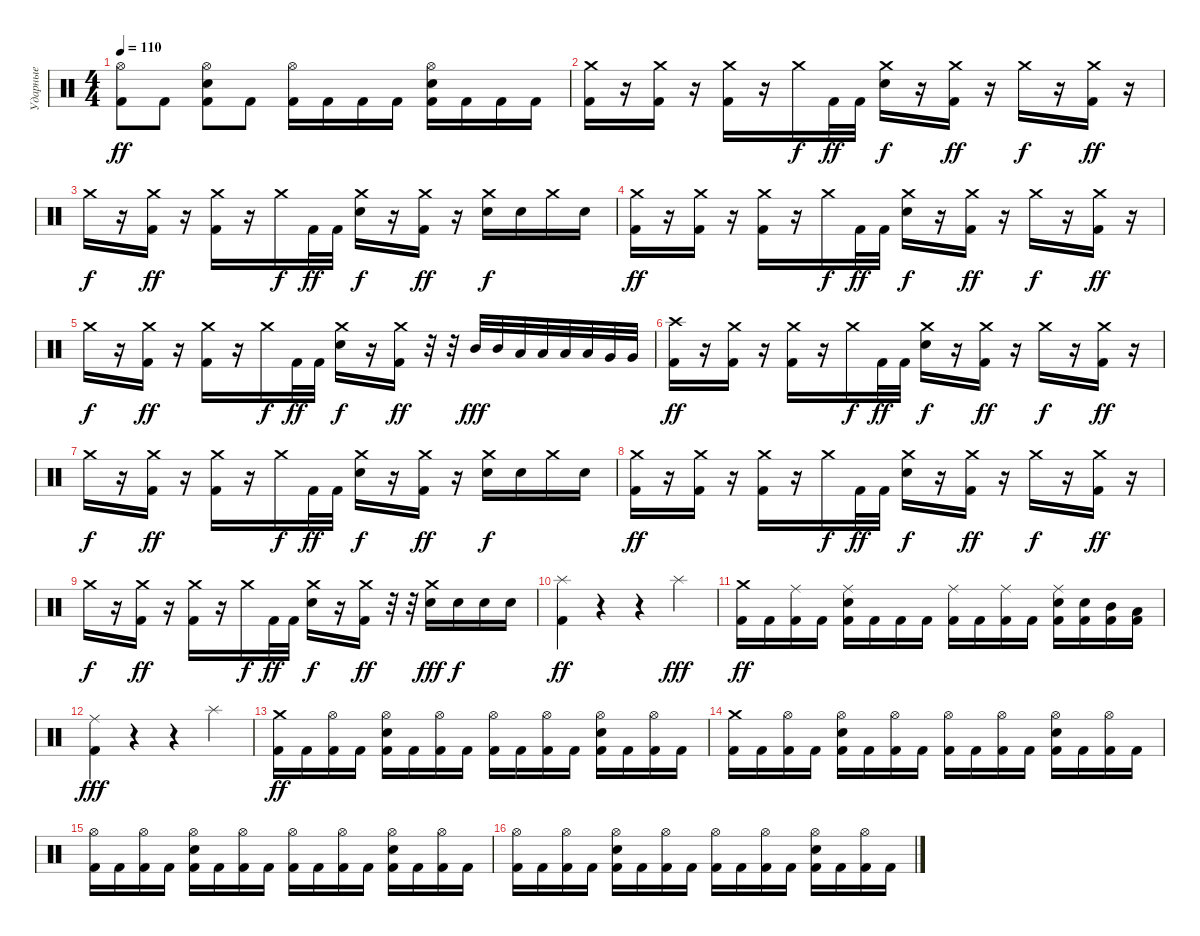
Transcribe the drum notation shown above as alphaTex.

\track ("Ударные" "Ударные") {instrument percussion}
\staff {score}
\articulation defaults
\ts (4 4)
\tempo 110
\clef neutral
\ks c
("Hi-Hat (open)" "Kick (hit) 2").8{dy ff} "Kick (hit) 2".8 ("Hi-Hat (open)" "Electric Snare (hit)" "Kick (hit) 2").8 "Kick (hit) 2".8 ("Hi-Hat (open)" "Kick (hit) 2").16 "Kick (hit) 2".16 "Kick (hit) 2".16 "Kick (hit) 2".16 ("Hi-Hat (open)" "Electric Snare (hit)" "Kick (hit) 2").16 "Kick (hit) 2".16 "Kick (hit) 2".16 "Kick (hit) 2".16 |
("Crash medium (hit)" "Kick (hit) 2").16 r.16 ("Crash medium (hit)" "Kick (hit) 2").16 r.16 ("Crash medium (hit)" "Kick (hit) 2").16 r.16 "Crash medium (hit)".16{dy f} "Kick (hit) 2".32{dy ff} "Kick (hit) 2".32 ("Crash medium (hit)" "Electric Snare (hit)").16{dy f} r.16 ("Crash medium (hit)" "Kick (hit) 2").16{dy ff} r.16 "Crash medium (hit)".16{dy f} r.16 ("Crash medium (hit)" "Kick (hit) 2").16{dy ff} r.16 |
"Crash medium (hit)".16{dy f} r.16 ("Crash medium (hit)" "Kick (hit) 2").16{dy ff} r.16 ("Crash medium (hit)" "Kick (hit) 2").16 r.16 "Crash medium (hit)".16{dy f} "Kick (hit) 2".32{dy ff} "Kick (hit) 2".32 ("Crash medium (hit)" "Electric Snare (hit)").16{dy f} r.16 ("Crash medium (hit)" "Kick (hit) 2").16{dy ff} r.16 ("Crash medium (hit)" "Electric Snare (hit)").16{dy f} "Electric Snare (hit)".16 "Crash medium (hit)".16 "Electric Snare (hit)".16 |
("Crash medium (hit)" "Kick (hit) 2").16{dy ff} r.16 ("Crash medium (hit)" "Kick (hit) 2").16 r.16 ("Crash medium (hit)" "Kick (hit) 2").16 r.16 "Crash medium (hit)".16{dy f} "Kick (hit) 2".32{dy ff} "Kick (hit) 2".32 ("Crash medium (hit)" "Electric Snare (hit)").16{dy f} r.16 ("Crash medium (hit)" "Kick (hit) 2").16{dy ff} r.16 "Crash medium (hit)".16{dy f} r.16 ("Crash medium (hit)" "Kick (hit) 2").16{dy ff} r.16 |
"Crash medium (hit)".16{dy f} r.16 ("Crash medium (hit)" "Kick (hit) 2").16{dy ff} r.16 ("Crash medium (hit)" "Kick (hit) 2").16 r.16 "Crash medium (hit)".16{dy f} "Kick (hit) 2".32{dy ff} "Kick (hit) 2".32 ("Crash medium (hit)" "Electric Snare (hit)").16{dy f} r.16 ("Crash medium (hit)" "Kick (hit) 2").16{dy ff} r.32 r.32 "Mid Tom (hit)".32{dy fff} "Mid Tom (hit)".32 "Low Tom (hit)".32 "Low Tom (hit)".32 "Low Tom (hit)".32 "Low Tom (hit)".32 "Very Low Tom (hit)".32 "Very Low Tom (hit)".32 |
("Crash high (hit)" "Kick (hit) 2").16{dy ff} r.16 ("Crash medium (hit)" "Kick (hit) 2").16 r.16 ("Crash medium (hit)" "Kick (hit) 2").16 r.16 "Crash medium (hit)".16{dy f} "Kick (hit) 2".32{dy ff} "Kick (hit) 2".32 ("Crash medium (hit)" "Electric Snare (hit)").16{dy f} r.16 ("Crash medium (hit)" "Kick (hit) 2").16{dy ff} r.16 "Crash medium (hit)".16{dy f} r.16 ("Crash medium (hit)" "Kick (hit) 2").16{dy ff} r.16 |
"Crash medium (hit)".16{dy f} r.16 ("Crash medium (hit)" "Kick (hit) 2").16{dy ff} r.16 ("Crash medium (hit)" "Kick (hit) 2").16 r.16 "Crash medium (hit)".16{dy f} "Kick (hit) 2".32{dy ff} "Kick (hit) 2".32 ("Crash medium (hit)" "Electric Snare (hit)").16{dy f} r.16 ("Crash medium (hit)" "Kick (hit) 2").16{dy ff} r.16 ("Crash medium (hit)" "Electric Snare (hit)").16{dy f} "Electric Snare (hit)".16 "Crash medium (hit)".16 "Electric Snare (hit)".16 |
("Crash medium (hit)" "Kick (hit) 2").16{dy ff} r.16 ("Crash medium (hit)" "Kick (hit) 2").16 r.16 ("Crash medium (hit)" "Kick (hit) 2").16 r.16 "Crash medium (hit)".16{dy f} "Kick (hit) 2".32{dy ff} "Kick (hit) 2".32 ("Crash medium (hit)" "Electric Snare (hit)").16{dy f} r.16 ("Crash medium (hit)" "Kick (hit) 2").16{dy ff} r.16 "Crash medium (hit)".16{dy f} r.16 ("Crash medium (hit)" "Kick (hit) 2").16{dy ff} r.16 |
"Crash medium (hit)".16{dy f} r.16 ("Crash medium (hit)" "Kick (hit) 2").16{dy ff} r.16 ("Crash medium (hit)" "Kick (hit) 2").16 r.16 "Crash medium (hit)".16{dy f} "Kick (hit) 2".32{dy ff} "Kick (hit) 2".32 ("Crash medium (hit)" "Electric Snare (hit)").16{dy f} r.16 ("Crash medium (hit)" "Kick (hit) 2").16{dy ff} r.32 r.32 ("Crash medium (hit)" "Electric Snare (hit)").16{dy fff} "Electric Snare (hit)".16{dy f} "Electric Snare (hit)".16 "Electric Snare (hit)".16 |
("Splash (hit)" "Kick (hit) 2").4{dy ff} r.4 r.4 "Splash (hit)".4{dy fff} |
("Crash medium (hit)" "Kick (hit) 2").16{dy ff} "Kick (hit) 2".16 ("Ride (middle)" "Kick (hit) 2").16 "Kick (hit) 2".16 ("Ride (middle)" "Electric Snare (hit)" "Kick (hit) 2").16 "Kick (hit) 2".16 "Kick (hit) 2".16 "Kick (hit) 2".16 ("Ride (middle)" "Kick (hit) 2").16 "Kick (hit) 2".16 ("Ride (middle)" "Kick (hit) 2").16 "Kick (hit) 2".16 ("Ride (middle)" "Electric Snare (hit)" "Kick (hit) 2").16 ("Electric Snare (hit)" "Kick (hit) 2").16 ("Mid Tom (hit)" "Kick (hit) 2").16 ("Low Tom (hit)" "Kick (hit) 2").16 |
("Kick (hit) 2" "Ride (middle)").4{dy fff} r.4 r.4 "Splash (hit)".4 |
("Crash medium (hit)" "Kick (hit) 2").16{dy ff} "Kick (hit) 2".16 ("Hi-Hat (open)" "Kick (hit) 2").16 "Kick (hit) 2".16 ("Hi-Hat (open)" "Electric Snare (hit)" "Kick (hit) 2").16 "Kick (hit) 2".16 ("Hi-Hat (open)" "Kick (hit) 2").16 "Kick (hit) 2".16 ("Hi-Hat (open)" "Kick (hit) 2").16 "Kick (hit) 2".16 ("Hi-Hat (open)" "Kick (hit) 2").16 "Kick (hit) 2".16 ("Hi-Hat (open)" "Electric Snare (hit)" "Kick (hit) 2").16 "Kick (hit) 2".16 ("Hi-Hat (open)" "Kick (hit) 2").16 "Kick (hit) 2".16 |
("Crash medium (hit)" "Kick (hit) 2").16 "Kick (hit) 2".16 ("Hi-Hat (open)" "Kick (hit) 2").16 "Kick (hit) 2".16 ("Hi-Hat (open)" "Electric Snare (hit)" "Kick (hit) 2").16 "Kick (hit) 2".16 ("Hi-Hat (open)" "Kick (hit) 2").16 "Kick (hit) 2".16 ("Hi-Hat (open)" "Kick (hit) 2").16 "Kick (hit) 2".16 ("Hi-Hat (open)" "Kick (hit) 2").16 "Kick (hit) 2".16 ("Hi-Hat (open)" "Electric Snare (hit)" "Kick (hit) 2").16 "Kick (hit) 2".16 ("Hi-Hat (open)" "Kick (hit) 2").16 "Kick (hit) 2".16 |
("Hi-Hat (open)" "Kick (hit) 2").16 "Kick (hit) 2".16 ("Hi-Hat (open)" "Kick (hit) 2").16 "Kick (hit) 2".16 ("Hi-Hat (open)" "Electric Snare (hit)" "Kick (hit) 2").16 "Kick (hit) 2".16 ("Hi-Hat (open)" "Kick (hit) 2").16 "Kick (hit) 2".16 ("Hi-Hat (open)" "Kick (hit) 2").16 "Kick (hit) 2".16 ("Hi-Hat (open)" "Kick (hit) 2").16 "Kick (hit) 2".16 ("Hi-Hat (open)" "Electric Snare (hit)" "Kick (hit) 2").16 "Kick (hit) 2".16 ("Hi-Hat (open)" "Kick (hit) 2").16 "Kick (hit) 2".16 |
("Hi-Hat (open)" "Kick (hit) 2").16 "Kick (hit) 2".16 ("Hi-Hat (open)" "Kick (hit) 2").16 "Kick (hit) 2".16 ("Hi-Hat (open)" "Electric Snare (hit)" "Kick (hit) 2").16 "Kick (hit) 2".16 ("Hi-Hat (open)" "Kick (hit) 2").16 "Kick (hit) 2".16 ("Hi-Hat (open)" "Kick (hit) 2").16 "Kick (hit) 2".16 ("Hi-Hat (open)" "Kick (hit) 2").16 "Kick (hit) 2".16 ("Hi-Hat (open)" "Electric Snare (hit)" "Kick (hit) 2").16 "Kick (hit) 2".16 ("Hi-Hat (open)" "Kick (hit) 2").16 "Kick (hit) 2".16
